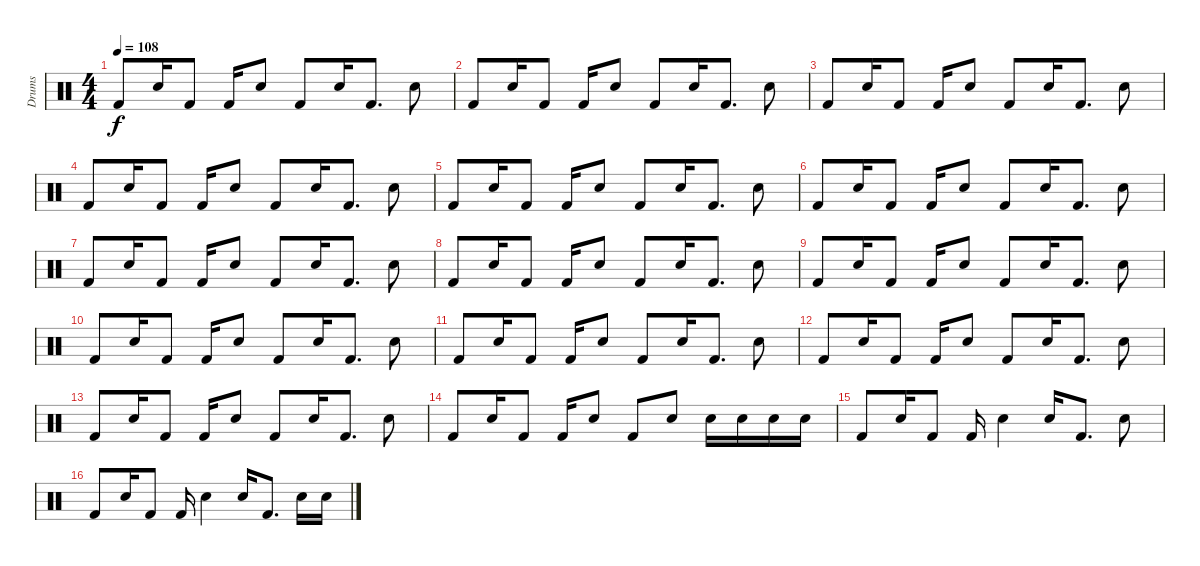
\track ("Drums" "Drums") {instrument percussion}
\staff {score}
\articulation defaults
\ts (4 4)
\tempo 108
\clef neutral
\ks c "Kick (hit) 2".8{dy f} "Electric Snare (hit)".16 "Kick (hit) 2".8 "Kick (hit) 2".16 "Electric Snare (hit)".8 "Kick (hit) 2".8 "Electric Snare (hit)".16 "Kick (hit) 2".8{d} "Electric Snare (hit)".8
|
"Kick (hit) 2".8 "Electric Snare (hit)".16 "Kick (hit) 2".8 "Kick (hit) 2".16 "Electric Snare (hit)".8 "Kick (hit) 2".8 "Electric Snare (hit)".16 "Kick (hit) 2".8{d} "Electric Snare (hit)".8 |
"Kick (hit) 2".8 "Electric Snare (hit)".16 "Kick (hit) 2".8 "Kick (hit) 2".16 "Electric Snare (hit)".8 "Kick (hit) 2".8 "Electric Snare (hit)".16 "Kick (hit) 2".8{d} "Electric Snare (hit)".8 |
"Kick (hit) 2".8 "Electric Snare (hit)".16 "Kick (hit) 2".8 "Kick (hit) 2".16 "Electric Snare (hit)".8 "Kick (hit) 2".8 "Electric Snare (hit)".16 "Kick (hit) 2".8{d} "Electric Snare (hit)".8 |
"Kick (hit) 2".8 "Electric Snare (hit)".16 "Kick (hit) 2".8 "Kick (hit) 2".16 "Electric Snare (hit)".8 "Kick (hit) 2".8 "Electric Snare (hit)".16 "Kick (hit) 2".8{d} "Electric Snare (hit)".8 |
"Kick (hit) 2".8 "Electric Snare (hit)".16 "Kick (hit) 2".8 "Kick (hit) 2".16 "Electric Snare (hit)".8 "Kick (hit) 2".8 "Electric Snare (hit)".16 "Kick (hit) 2".8{d} "Electric Snare (hit)".8 |
"Kick (hit) 2".8 "Electric Snare (hit)".16 "Kick (hit) 2".8 "Kick (hit) 2".16 "Electric Snare (hit)".8 "Kick (hit) 2".8 "Electric Snare (hit)".16 "Kick (hit) 2".8{d} "Electric Snare (hit)".8 |
"Kick (hit) 2".8 "Electric Snare (hit)".16 "Kick (hit) 2".8 "Kick (hit) 2".16 "Electric Snare (hit)".8 "Kick (hit) 2".8 "Electric Snare (hit)".16 "Kick (hit) 2".8{d} "Electric Snare (hit)".8 |
"Kick (hit) 2".8 "Electric Snare (hit)".16 "Kick (hit) 2".8 "Kick (hit) 2".16 "Electric Snare (hit)".8 "Kick (hit) 2".8 "Electric Snare (hit)".16 "Kick (hit) 2".8{d} "Electric Snare (hit)".8 |
"Kick (hit) 2".8 "Electric Snare (hit)".16 "Kick (hit) 2".8 "Kick (hit) 2".16 "Electric Snare (hit)".8 "Kick (hit) 2".8 "Electric Snare (hit)".16 "Kick (hit) 2".8{d} "Electric Snare (hit)".8 |
"Kick (hit) 2".8 "Electric Snare (hit)".16 "Kick (hit) 2".8 "Kick (hit) 2".16 "Electric Snare (hit)".8 "Kick (hit) 2".8 "Electric Snare (hit)".16 "Kick (hit) 2".8{d} "Electric Snare (hit)".8 |
"Kick (hit) 2".8 "Electric Snare (hit)".16 "Kick (hit) 2".8 "Kick (hit) 2".16 "Electric Snare (hit)".8 "Kick (hit) 2".8 "Electric Snare (hit)".16 "Kick (hit) 2".8{d} "Electric Snare (hit)".8 |
"Kick (hit) 2".8 "Electric Snare (hit)".16 "Kick (hit) 2".8 "Kick (hit) 2".16 "Electric Snare (hit)".8 "Kick (hit) 2".8 "Electric Snare (hit)".16 "Kick (hit) 2".8{d} "Electric Snare (hit)".8 |
"Kick (hit) 2".8 "Electric Snare (hit)".16 "Kick (hit) 2".8 "Kick (hit) 2".16 "Electric Snare (hit)".8 "Kick (hit) 2".8 "Electric Snare (hit)".8 "Electric Snare (hit)".16 "Electric Snare (hit)".16 "Electric Snare (hit)".16 "Electric Snare (hit)".16 |
"Kick (hit) 2".8 "Electric Snare (hit)".16 "Kick (hit) 2".8 "Kick (hit) 2".16 "Electric Snare (hit)".4 "Electric Snare (hit)".16 "Kick (hit) 2".8{d} "Electric Snare (hit)".8 |
"Kick (hit) 2".8 "Electric Snare (hit)".16 "Kick (hit) 2".8 "Kick (hit) 2".16 "Electric Snare (hit)".4 "Electric Snare (hit)".16 "Kick (hit) 2".8{d} "Electric Snare (hit)".16 "Electric Snare (hit)".16
